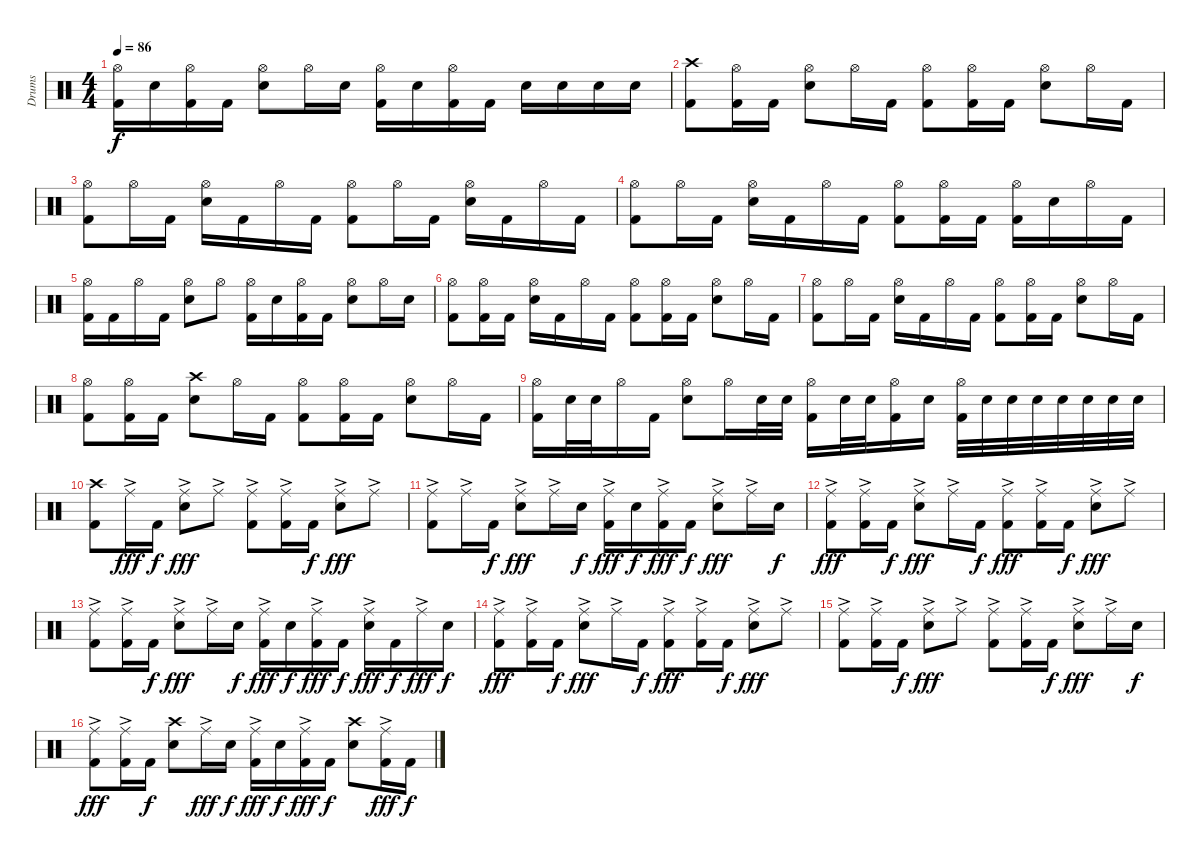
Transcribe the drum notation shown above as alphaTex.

\track ("Drums" "Drums") {instrument percussion}
\staff {score}
\articulation defaults
\ts (4 4)
\tempo 86
\clef neutral
\ks c
("Hi-Hat (open)" "Kick (hit) 2").16{dy f} "Electric Snare (hit)".16 ("Hi-Hat (open)" "Kick (hit) 2").16 "Kick (hit) 2".16 ("Hi-Hat (open)" "Electric Snare (hit)").8 "Hi-Hat (open)".16 "Electric Snare (hit)".16 ("Hi-Hat (open)" "Kick (hit) 2").16 "Electric Snare (hit)".16 ("Hi-Hat (open)" "Kick (hit) 2").16 "Kick (hit) 2".16 "Electric Snare (hit)".16 "Electric Snare (hit)".16 "Electric Snare (hit)".16 "Electric Snare (hit)".16 |
("Crash high (hit)" "Kick (hit) 2").8 ("Hi-Hat (open)" "Kick (hit) 2").16 "Kick (hit) 2".16 ("Hi-Hat (open)" "Electric Snare (hit)").8 "Hi-Hat (open)".16 "Kick (hit) 2".16 ("Hi-Hat (open)" "Kick (hit) 2").8 ("Hi-Hat (open)" "Kick (hit) 2").16 "Kick (hit) 2".16 ("Hi-Hat (open)" "Electric Snare (hit)").8 "Hi-Hat (open)".16 "Kick (hit) 2".16 |
("Hi-Hat (open)" "Kick (hit) 2").8 "Hi-Hat (open)".16 "Kick (hit) 2".16 ("Hi-Hat (open)" "Electric Snare (hit)").16 "Kick (hit) 2".16 "Hi-Hat (open)".16 "Kick (hit) 2".16 ("Hi-Hat (open)" "Kick (hit) 2").8 "Hi-Hat (open)".16 "Kick (hit) 2".16 ("Hi-Hat (open)" "Electric Snare (hit)").16 "Kick (hit) 2".16 "Hi-Hat (open)".16 "Kick (hit) 2".16 |
("Hi-Hat (open)" "Kick (hit) 2").8 "Hi-Hat (open)".16 "Kick (hit) 2".16 ("Hi-Hat (open)" "Electric Snare (hit)").16 "Kick (hit) 2".16 "Hi-Hat (open)".16 "Kick (hit) 2".16 ("Hi-Hat (open)" "Kick (hit) 2").8 ("Hi-Hat (open)" "Kick (hit) 2").16 "Kick (hit) 2".16 ("Hi-Hat (open)" "Kick (hit) 2").16 "Electric Snare (hit)".16 "Hi-Hat (open)".16 "Kick (hit) 2".16 |
("Hi-Hat (open)" "Kick (hit) 2").16 "Kick (hit) 2".16 "Hi-Hat (open)".16 "Kick (hit) 2".16 ("Hi-Hat (open)" "Electric Snare (hit)").8 "Hi-Hat (open)".8 ("Hi-Hat (open)" "Kick (hit) 2").16 "Electric Snare (hit)".16 ("Hi-Hat (open)" "Kick (hit) 2").16 "Kick (hit) 2".16 ("Hi-Hat (open)" "Electric Snare (hit)").8 "Hi-Hat (open)".16 "Electric Snare (hit)".16 |
("Hi-Hat (open)" "Kick (hit) 2").8 ("Hi-Hat (open)" "Kick (hit) 2").16 "Kick (hit) 2".16 ("Hi-Hat (open)" "Electric Snare (hit)").16 "Kick (hit) 2".16 "Hi-Hat (open)".16 "Kick (hit) 2".16 ("Hi-Hat (open)" "Kick (hit) 2").8 ("Hi-Hat (open)" "Kick (hit) 2").16 "Kick (hit) 2".16 ("Hi-Hat (open)" "Electric Snare (hit)").8 "Hi-Hat (open)".16 "Kick (hit) 2".16 |
("Hi-Hat (open)" "Kick (hit) 2").8 "Hi-Hat (open)".16 "Kick (hit) 2".16 ("Hi-Hat (open)" "Electric Snare (hit)").16 "Kick (hit) 2".16 "Hi-Hat (open)".16 "Kick (hit) 2".16 ("Hi-Hat (open)" "Kick (hit) 2").8 ("Hi-Hat (open)" "Kick (hit) 2").16 "Kick (hit) 2".16 ("Hi-Hat (open)" "Electric Snare (hit)").8 "Hi-Hat (open)".16 "Kick (hit) 2".16 |
("Hi-Hat (open)" "Kick (hit) 2").8 ("Hi-Hat (open)" "Kick (hit) 2").16 "Kick (hit) 2".16 ("Crash high (hit)" "Electric Snare (hit)").8 "Hi-Hat (open)".16 "Kick (hit) 2".16 ("Hi-Hat (open)" "Kick (hit) 2").8 ("Hi-Hat (open)" "Kick (hit) 2").16 "Kick (hit) 2".16 ("Hi-Hat (open)" "Electric Snare (hit)").8 "Hi-Hat (open)".16 "Kick (hit) 2".16 |
("Hi-Hat (open)" "Kick (hit) 2").16 "Electric Snare (hit)".32 "Electric Snare (hit)".32 "Hi-Hat (open)".16 "Kick (hit) 2".16 ("Hi-Hat (open)" "Electric Snare (hit)").8 "Hi-Hat (open)".16 "Electric Snare (hit)".32 "Electric Snare (hit)".32 ("Hi-Hat (open)" "Kick (hit) 2").16 "Electric Snare (hit)".32 "Electric Snare (hit)".32 ("Hi-Hat (open)" "Kick (hit) 2").16 "Electric Snare (hit)".16 ("Hi-Hat (open)" "Kick (hit) 2").32 "Electric Snare (hit)".32 "Electric Snare (hit)".32 "Electric Snare (hit)".32 "Electric Snare (hit)".32 "Electric Snare (hit)".32 "Electric Snare (hit)".32 "Electric Snare (hit)".32 |
("Crash high (hit)" "Kick (hit) 2").8 "Ride (middle)"{ac}.16{dy fff} "Kick (hit) 2".16{dy f} ("Ride (middle)"{ac} "Electric Snare (hit)").8{dy fff} "Ride (middle)"{ac}.8 ("Ride (middle)"{ac} "Kick (hit) 2").8 ("Ride (middle)"{ac} "Kick (hit) 2").16 "Kick (hit) 2".16{dy f} ("Ride (middle)"{ac} "Electric Snare (hit)").8{dy fff} "Ride (middle)"{ac}.8 |
("Ride (middle)"{ac} "Kick (hit) 2").8 "Ride (middle)"{ac}.16 "Kick (hit) 2".16{dy f} ("Ride (middle)"{ac} "Electric Snare (hit)").8{dy fff} "Ride (middle)"{ac}.16 "Electric Snare (hit)".16{dy f} ("Ride (middle)"{ac} "Kick (hit) 2").16{dy fff} "Electric Snare (hit)".16{dy f} ("Ride (middle)"{ac} "Kick (hit) 2").16{dy fff} "Kick (hit) 2".16{dy f} ("Ride (middle)"{ac} "Electric Snare (hit)").8{dy fff} "Ride (middle)"{ac}.16 "Electric Snare (hit)".16{dy f} |
("Ride (middle)"{ac} "Kick (hit) 2").8{dy fff} ("Ride (middle)"{ac} "Kick (hit) 2").16 "Kick (hit) 2".16{dy f} ("Ride (middle)"{ac} "Electric Snare (hit)").8{dy fff} "Ride (middle)"{ac}.16 "Kick (hit) 2".16{dy f} ("Ride (middle)"{ac} "Kick (hit) 2").8{dy fff} ("Ride (middle)"{ac} "Kick (hit) 2").16 "Kick (hit) 2".16{dy f} ("Ride (middle)"{ac} "Electric Snare (hit)").8{dy fff} "Ride (middle)"{ac}.8 |
("Ride (middle)"{ac} "Kick (hit) 2").8 ("Ride (middle)"{ac} "Kick (hit) 2").16 "Kick (hit) 2".16{dy f} ("Ride (middle)"{ac} "Electric Snare (hit)").8{dy fff} "Ride (middle)"{ac}.16 "Electric Snare (hit)".16{dy f} ("Ride (middle)"{ac} "Kick (hit) 2").16{dy fff} "Electric Snare (hit)".16{dy f} ("Ride (middle)"{ac} "Kick (hit) 2").16{dy fff} "Kick (hit) 2".16{dy f} ("Ride (middle)"{ac} "Electric Snare (hit)").16{dy fff} "Kick (hit) 2".16{dy f} "Ride (middle)"{ac}.16{dy fff} "Electric Snare (hit)".16{dy f} |
("Ride (middle)"{ac} "Kick (hit) 2").8{dy fff} ("Ride (middle)"{ac} "Kick (hit) 2").16 "Kick (hit) 2".16{dy f} ("Ride (middle)"{ac} "Electric Snare (hit)").8{dy fff} "Ride (middle)"{ac}.16 "Kick (hit) 2".16{dy f} ("Ride (middle)"{ac} "Kick (hit) 2").8{dy fff} ("Ride (middle)"{ac} "Kick (hit) 2").16 "Kick (hit) 2".16{dy f} ("Ride (middle)"{ac} "Electric Snare (hit)").8{dy fff} "Ride (middle)"{ac}.8 |
("Ride (middle)"{ac} "Kick (hit) 2").8 ("Ride (middle)"{ac} "Kick (hit) 2").16 "Kick (hit) 2".16{dy f} ("Ride (middle)"{ac} "Electric Snare (hit)").8{dy fff} "Ride (middle)"{ac}.8 ("Ride (middle)"{ac} "Kick (hit) 2").8 ("Ride (middle)"{ac} "Kick (hit) 2").16 "Kick (hit) 2".16{dy f} ("Ride (middle)"{ac} "Electric Snare (hit)").8{dy fff} "Ride (middle)"{ac}.16 "Electric Snare (hit)".16{dy f} |
("Ride (middle)"{ac} "Kick (hit) 2").8{dy fff} ("Ride (middle)"{ac} "Kick (hit) 2").16 "Kick (hit) 2".16{dy f} ("Crash high (hit)" "Electric Snare (hit)").8 "Ride (middle)"{ac}.16{dy fff} "Electric Snare (hit)".16{dy f} ("Ride (middle)"{ac} "Kick (hit) 2").16{dy fff} "Electric Snare (hit)".16{dy f} ("Ride (middle)"{ac} "Kick (hit) 2").16{dy fff} "Kick (hit) 2".16{dy f} ("Crash high (hit)" "Electric Snare (hit)").8 ("Ride (middle)"{ac} "Kick (hit) 2").16{dy fff} "Kick (hit) 2".16{dy f}
